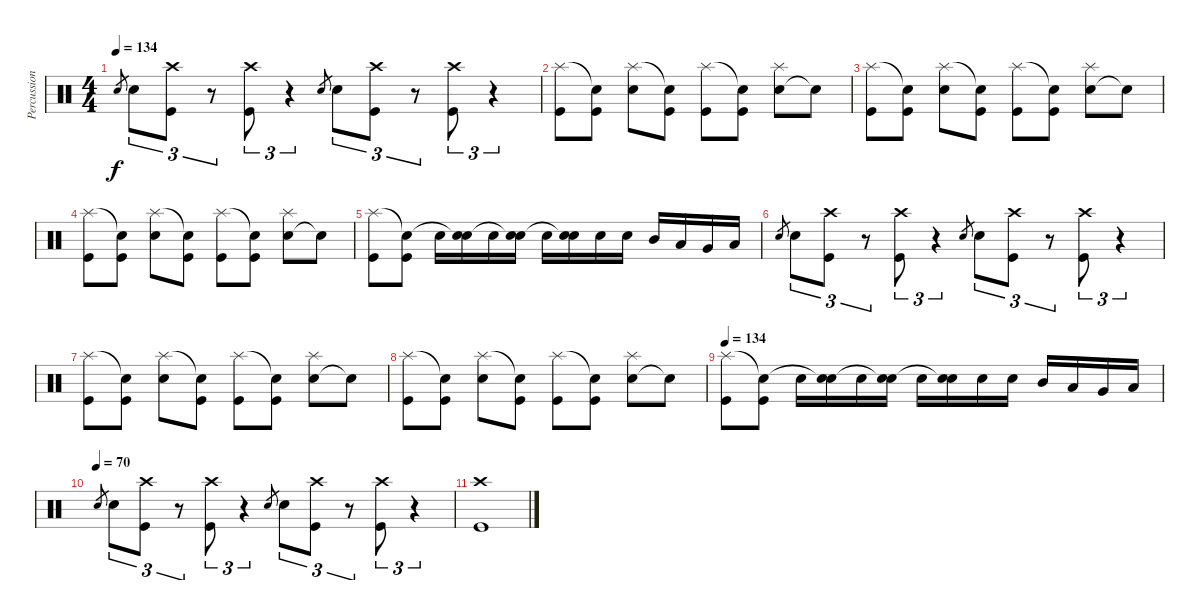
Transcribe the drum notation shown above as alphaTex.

\track ("Percussion" "Percussion") {instrument percussion}
\staff {score}
\articulation defaults
\ts (4 4)
\tempo 134
\clef neutral
\ks c "Snare (hit) 2".8{gr dy f} "Snare (hit) 2".8{tu (3 2)}
("Kick (hit)" "Crash high (hit)").8{tu (3 2)} r.8{tu (3 2)} ("Kick (hit)" "Crash high (hit)").8{tu (3 2)} r.4{tu (3 2)} "Snare (hit) 2".8{gr} "Snare (hit) 2".8{tu (3 2)} ("Kick (hit)" "Crash high (hit)").8{tu (3 2)} r.8{tu (3 2)} ("Kick (hit)" "Crash high (hit)").8{tu (3 2)} r.4{tu (3 2)} |
("Kick (hit)" "Splash (hit)").8 ("Kick (hit)" "Snare (hit)"{t}).8 ("Snare (hit) 2" "Splash (hit)").8 ("Kick (hit)" "Snare (hit)"{t}).8 ("Kick (hit)" "Splash (hit)").8 ("Kick (hit)" "Snare (hit)"{t}).8 ("Snare (hit) 2" "Splash (hit)").8 "Snare (hit)"{t}.8 |
("Kick (hit)" "Splash (hit)").8 ("Kick (hit)" "Snare (hit)"{t}).8 ("Snare (hit) 2" "Splash (hit)").8 ("Kick (hit)" "Snare (hit)"{t}).8 ("Kick (hit)" "Splash (hit)").8 ("Kick (hit)" "Snare (hit)"{t}).8 ("Snare (hit) 2" "Splash (hit)").8 "Snare (hit)"{t}.8 |
("Kick (hit)" "Splash (hit)").8 ("Kick (hit)" "Snare (hit)"{t}).8 ("Snare (hit) 2" "Splash (hit)").8 ("Kick (hit)" "Snare (hit)"{t}).8 ("Kick (hit)" "Splash (hit)").8 ("Kick (hit)" "Snare (hit)"{t}).8 ("Snare (hit) 2" "Splash (hit)").8 "Snare (hit)"{t}.8 |
("Kick (hit)" "Splash (hit)").8 ("Kick (hit)" "Snare (hit)"{t}).8 "Snare (hit) 2".16 ("Snare (hit) 2" "Snare (hit)"{t}).16 "Snare (hit) 2".16 ("Snare (hit) 2" "Snare (hit)"{t}).16 "Snare (hit) 2".16 ("Snare (hit) 2" "Snare (hit)"{t}).16 "Snare (hit) 2".16 "Snare (hit) 2".16 "Mid Tom (hit)".16 "Low Tom (hit)".16 "Very Low Tom (hit)".16 "Low Floor Tom (hit)".16 |
"Snare (hit) 2".8{gr} "Snare (hit) 2".8{tu (3 2)} ("Kick (hit)" "Crash high (hit)").8{tu (3 2)} r.8{tu (3 2)} ("Kick (hit)" "Crash high (hit)").8{tu (3 2)} r.4{tu (3 2)} "Snare (hit) 2".8{gr} "Snare (hit) 2".8{tu (3 2)} ("Kick (hit)" "Crash high (hit)").8{tu (3 2)} r.8{tu (3 2)} ("Kick (hit)" "Crash high (hit)").8{tu (3 2)} r.4{tu (3 2)} |
("Kick (hit)" "Splash (hit)").8 ("Kick (hit)" "Snare (hit)"{t}).8 ("Snare (hit) 2" "Splash (hit)").8 ("Kick (hit)" "Snare (hit)"{t}).8 ("Kick (hit)" "Splash (hit)").8 ("Kick (hit)" "Snare (hit)"{t}).8 ("Snare (hit) 2" "Splash (hit)").8 "Snare (hit)"{t}.8 |
("Kick (hit)" "Splash (hit)").8 ("Kick (hit)" "Snare (hit)"{t}).8 ("Snare (hit) 2" "Splash (hit)").8 ("Kick (hit)" "Snare (hit)"{t}).8 ("Kick (hit)" "Splash (hit)").8 ("Kick (hit)" "Snare (hit)"{t}).8 ("Snare (hit) 2" "Splash (hit)").8 "Snare (hit)"{t}.8 |
\tempo 134
("Kick (hit)" "Splash (hit)").8 ("Kick (hit)" "Snare (hit)"{t}).8 "Snare (hit) 2".16 ("Snare (hit) 2" "Snare (hit)"{t}).16 "Snare (hit) 2".16 ("Snare (hit) 2" "Snare (hit)"{t}).16 "Snare (hit) 2".16 ("Snare (hit) 2" "Snare (hit)"{t}).16 "Snare (hit) 2".16 "Snare (hit) 2".16 "Mid Tom (hit)".16 "Low Tom (hit)".16 "Very Low Tom (hit)".16 "Low Floor Tom (hit)".16 |
\tempo (70)
"Snare (hit) 2".8{gr} "Snare (hit) 2".8{tu (3 2)} ("Kick (hit)" "Crash high (hit)").8{tu (3 2)} r.8{tu (3 2)} ("Kick (hit)" "Crash high (hit)").8{tu (3 2)} r.4{tu (3 2)} "Snare (hit) 2".8{gr} "Snare (hit) 2".8{tu (3 2)} ("Kick (hit)" "Crash high (hit)").8{tu (3 2)} r.8{tu (3 2)} ("Kick (hit)" "Crash high (hit)").8{tu (3 2)} r.4{tu (3 2)} |
("Kick (hit)" "Crash high (hit)").1
